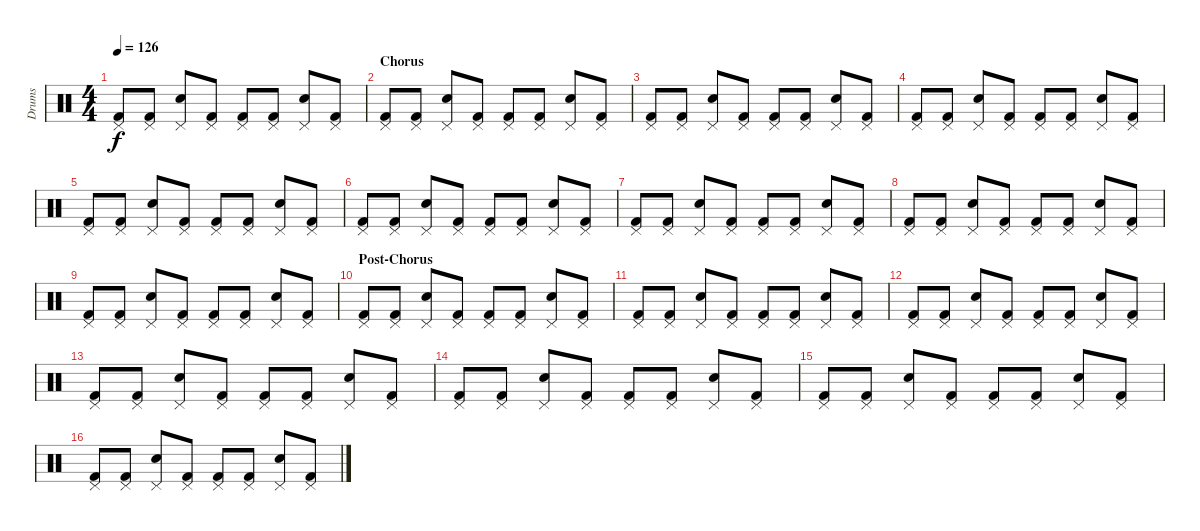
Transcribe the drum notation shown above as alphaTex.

\track ("Drums" "Drums") {instrument percussion}
\staff {score}
\articulation defaults
\ts (4 4)
\tempo 126
\clef neutral
\ks c
("Kick (hit) 2" "Pedal Hi-Hat (hit)").8{dy f} ("Kick (hit) 2" "Pedal Hi-Hat (hit)").8 ("Snare (hit) 2" "Pedal Hi-Hat (hit)").8 ("Kick (hit) 2" "Pedal Hi-Hat (hit)").8 ("Kick (hit) 2" "Pedal Hi-Hat (hit)").8 ("Kick (hit) 2" "Pedal Hi-Hat (hit)").8 ("Snare (hit) 2" "Pedal Hi-Hat (hit)").8 ("Kick (hit) 2" "Pedal Hi-Hat (hit)").8 |
\section ("" "Chorus")
("Kick (hit) 2" "Pedal Hi-Hat (hit)").8 ("Kick (hit) 2" "Pedal Hi-Hat (hit)").8 ("Snare (hit) 2" "Pedal Hi-Hat (hit)").8 ("Kick (hit) 2" "Pedal Hi-Hat (hit)").8 ("Kick (hit) 2" "Pedal Hi-Hat (hit)").8 ("Kick (hit) 2" "Pedal Hi-Hat (hit)").8 ("Snare (hit) 2" "Pedal Hi-Hat (hit)").8 ("Kick (hit) 2" "Pedal Hi-Hat (hit)").8 |
("Kick (hit) 2" "Pedal Hi-Hat (hit)").8 ("Kick (hit) 2" "Pedal Hi-Hat (hit)").8 ("Snare (hit) 2" "Pedal Hi-Hat (hit)").8 ("Kick (hit) 2" "Pedal Hi-Hat (hit)").8 ("Kick (hit) 2" "Pedal Hi-Hat (hit)").8 ("Kick (hit) 2" "Pedal Hi-Hat (hit)").8 ("Snare (hit) 2" "Pedal Hi-Hat (hit)").8 ("Kick (hit) 2" "Pedal Hi-Hat (hit)").8 |
("Kick (hit) 2" "Pedal Hi-Hat (hit)").8 ("Kick (hit) 2" "Pedal Hi-Hat (hit)").8 ("Snare (hit) 2" "Pedal Hi-Hat (hit)").8 ("Kick (hit) 2" "Pedal Hi-Hat (hit)").8 ("Kick (hit) 2" "Pedal Hi-Hat (hit)").8 ("Kick (hit) 2" "Pedal Hi-Hat (hit)").8 ("Snare (hit) 2" "Pedal Hi-Hat (hit)").8 ("Kick (hit) 2" "Pedal Hi-Hat (hit)").8 |
("Kick (hit) 2" "Pedal Hi-Hat (hit)").8 ("Kick (hit) 2" "Pedal Hi-Hat (hit)").8 ("Snare (hit) 2" "Pedal Hi-Hat (hit)").8 ("Kick (hit) 2" "Pedal Hi-Hat (hit)").8 ("Kick (hit) 2" "Pedal Hi-Hat (hit)").8 ("Kick (hit) 2" "Pedal Hi-Hat (hit)").8 ("Snare (hit) 2" "Pedal Hi-Hat (hit)").8 ("Kick (hit) 2" "Pedal Hi-Hat (hit)").8 |
("Kick (hit) 2" "Pedal Hi-Hat (hit)").8 ("Kick (hit) 2" "Pedal Hi-Hat (hit)").8 ("Snare (hit) 2" "Pedal Hi-Hat (hit)").8 ("Kick (hit) 2" "Pedal Hi-Hat (hit)").8 ("Kick (hit) 2" "Pedal Hi-Hat (hit)").8 ("Kick (hit) 2" "Pedal Hi-Hat (hit)").8 ("Snare (hit) 2" "Pedal Hi-Hat (hit)").8 ("Kick (hit) 2" "Pedal Hi-Hat (hit)").8 |
("Kick (hit) 2" "Pedal Hi-Hat (hit)").8 ("Kick (hit) 2" "Pedal Hi-Hat (hit)").8 ("Snare (hit) 2" "Pedal Hi-Hat (hit)").8 ("Kick (hit) 2" "Pedal Hi-Hat (hit)").8 ("Kick (hit) 2" "Pedal Hi-Hat (hit)").8 ("Kick (hit) 2" "Pedal Hi-Hat (hit)").8 ("Snare (hit) 2" "Pedal Hi-Hat (hit)").8 ("Kick (hit) 2" "Pedal Hi-Hat (hit)").8 |
("Kick (hit) 2" "Pedal Hi-Hat (hit)").8 ("Kick (hit) 2" "Pedal Hi-Hat (hit)").8 ("Snare (hit) 2" "Pedal Hi-Hat (hit)").8 ("Kick (hit) 2" "Pedal Hi-Hat (hit)").8 ("Kick (hit) 2" "Pedal Hi-Hat (hit)").8 ("Kick (hit) 2" "Pedal Hi-Hat (hit)").8 ("Snare (hit) 2" "Pedal Hi-Hat (hit)").8 ("Kick (hit) 2" "Pedal Hi-Hat (hit)").8 |
("Kick (hit) 2" "Pedal Hi-Hat (hit)").8 ("Kick (hit) 2" "Pedal Hi-Hat (hit)").8 ("Snare (hit) 2" "Pedal Hi-Hat (hit)").8 ("Kick (hit) 2" "Pedal Hi-Hat (hit)").8 ("Kick (hit) 2" "Pedal Hi-Hat (hit)").8 ("Kick (hit) 2" "Pedal Hi-Hat (hit)").8 ("Snare (hit) 2" "Pedal Hi-Hat (hit)").8 ("Kick (hit) 2" "Pedal Hi-Hat (hit)").8 |
\section ("" "Post-Chorus")
("Kick (hit) 2" "Pedal Hi-Hat (hit)").8 ("Kick (hit) 2" "Pedal Hi-Hat (hit)").8 ("Snare (hit) 2" "Pedal Hi-Hat (hit)").8 ("Kick (hit) 2" "Pedal Hi-Hat (hit)").8 ("Kick (hit) 2" "Pedal Hi-Hat (hit)").8 ("Kick (hit) 2" "Pedal Hi-Hat (hit)").8 ("Snare (hit) 2" "Pedal Hi-Hat (hit)").8 ("Kick (hit) 2" "Pedal Hi-Hat (hit)").8 |
("Kick (hit) 2" "Pedal Hi-Hat (hit)").8 ("Kick (hit) 2" "Pedal Hi-Hat (hit)").8 ("Snare (hit) 2" "Pedal Hi-Hat (hit)").8 ("Kick (hit) 2" "Pedal Hi-Hat (hit)").8 ("Kick (hit) 2" "Pedal Hi-Hat (hit)").8 ("Kick (hit) 2" "Pedal Hi-Hat (hit)").8 ("Snare (hit) 2" "Pedal Hi-Hat (hit)").8 ("Kick (hit) 2" "Pedal Hi-Hat (hit)").8 |
("Kick (hit) 2" "Pedal Hi-Hat (hit)").8 ("Kick (hit) 2" "Pedal Hi-Hat (hit)").8 ("Snare (hit) 2" "Pedal Hi-Hat (hit)").8 ("Kick (hit) 2" "Pedal Hi-Hat (hit)").8 ("Kick (hit) 2" "Pedal Hi-Hat (hit)").8 ("Kick (hit) 2" "Pedal Hi-Hat (hit)").8 ("Snare (hit) 2" "Pedal Hi-Hat (hit)").8 ("Kick (hit) 2" "Pedal Hi-Hat (hit)").8 |
("Kick (hit) 2" "Pedal Hi-Hat (hit)").8 ("Kick (hit) 2" "Pedal Hi-Hat (hit)").8 ("Snare (hit) 2" "Pedal Hi-Hat (hit)").8 ("Kick (hit) 2" "Pedal Hi-Hat (hit)").8 ("Kick (hit) 2" "Pedal Hi-Hat (hit)").8 ("Kick (hit) 2" "Pedal Hi-Hat (hit)").8 ("Snare (hit) 2" "Pedal Hi-Hat (hit)").8 ("Kick (hit) 2" "Pedal Hi-Hat (hit)").8 |
("Kick (hit) 2" "Pedal Hi-Hat (hit)").8 ("Kick (hit) 2" "Pedal Hi-Hat (hit)").8 ("Snare (hit) 2" "Pedal Hi-Hat (hit)").8 ("Kick (hit) 2" "Pedal Hi-Hat (hit)").8 ("Kick (hit) 2" "Pedal Hi-Hat (hit)").8 ("Kick (hit) 2" "Pedal Hi-Hat (hit)").8 ("Snare (hit) 2" "Pedal Hi-Hat (hit)").8 ("Kick (hit) 2" "Pedal Hi-Hat (hit)").8 |
("Kick (hit) 2" "Pedal Hi-Hat (hit)").8 ("Kick (hit) 2" "Pedal Hi-Hat (hit)").8 ("Snare (hit) 2" "Pedal Hi-Hat (hit)").8 ("Kick (hit) 2" "Pedal Hi-Hat (hit)").8 ("Kick (hit) 2" "Pedal Hi-Hat (hit)").8 ("Kick (hit) 2" "Pedal Hi-Hat (hit)").8 ("Snare (hit) 2" "Pedal Hi-Hat (hit)").8 ("Kick (hit) 2" "Pedal Hi-Hat (hit)").8 |
("Kick (hit) 2" "Pedal Hi-Hat (hit)").8 ("Kick (hit) 2" "Pedal Hi-Hat (hit)").8 ("Snare (hit) 2" "Pedal Hi-Hat (hit)").8 ("Kick (hit) 2" "Pedal Hi-Hat (hit)").8 ("Kick (hit) 2" "Pedal Hi-Hat (hit)").8 ("Kick (hit) 2" "Pedal Hi-Hat (hit)").8 ("Snare (hit) 2" "Pedal Hi-Hat (hit)").8 ("Kick (hit) 2" "Pedal Hi-Hat (hit)").8
